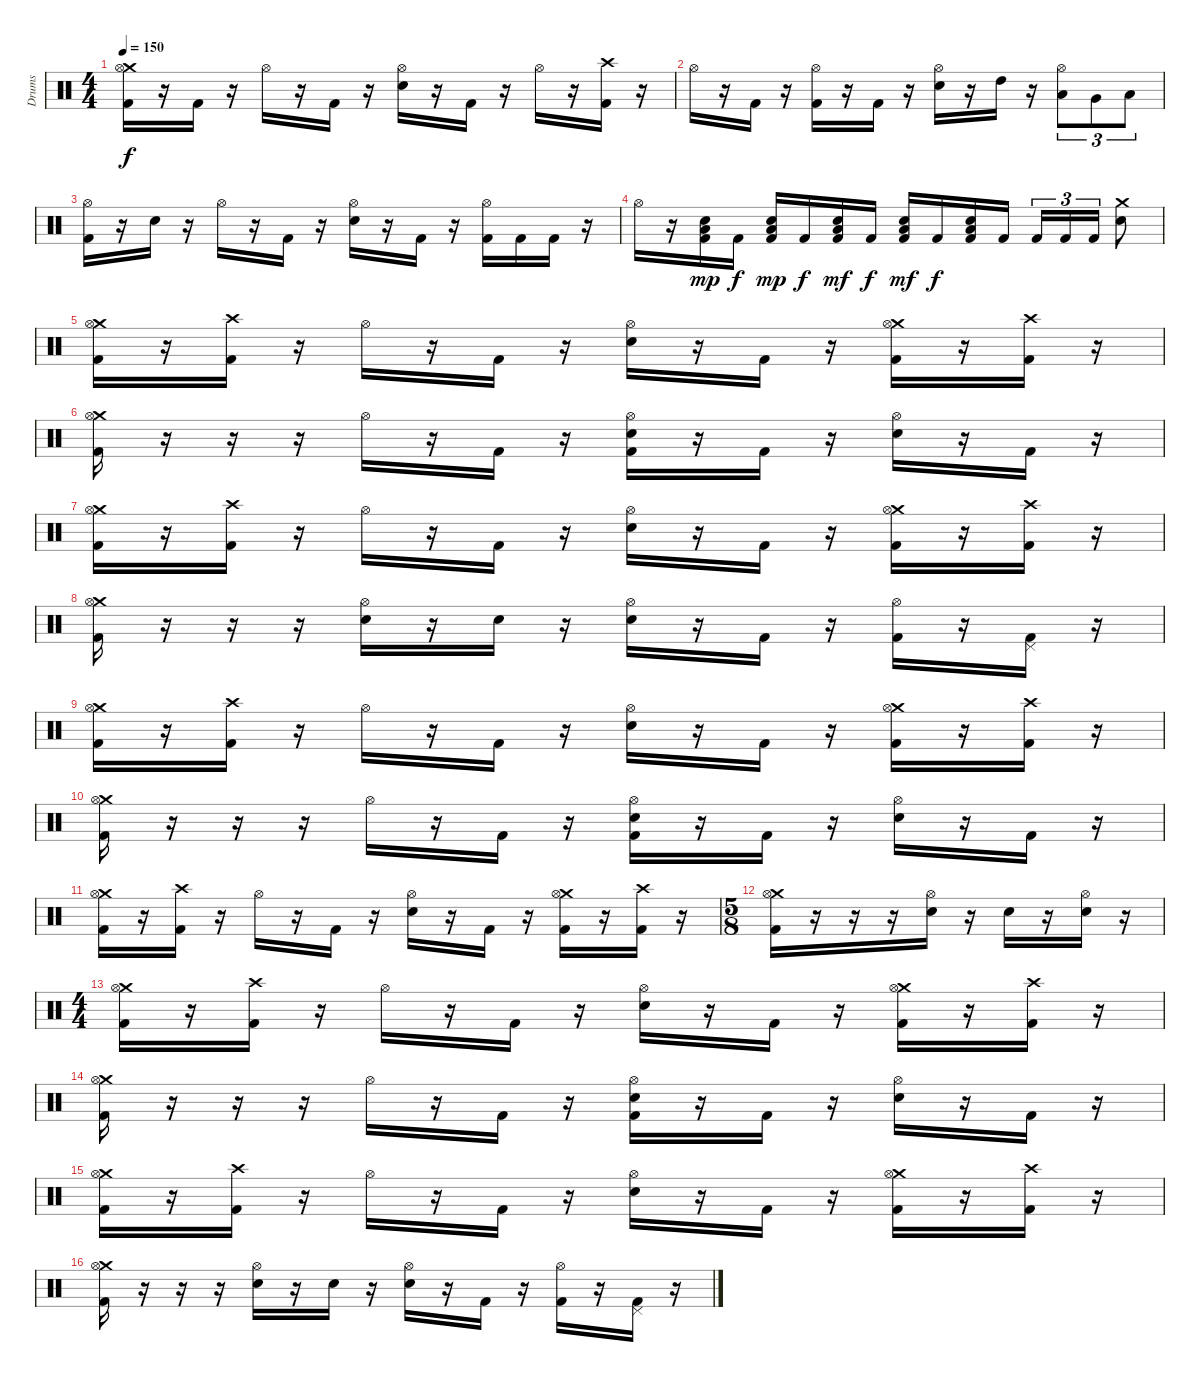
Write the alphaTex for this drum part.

\track ("Drums" "Drums") {instrument percussion}
\staff {score}
\articulation defaults
\ts (4 4)
\tempo 150
\clef neutral
\ks c
("Crash medium (hit)" "Hi-Hat (open)" "Kick (hit) 2").16{dy f} r.16 "Kick (hit) 2".16 r.16 "Hi-Hat (open)".16 r.16 "Kick (hit) 2".16 r.16 ("Hi-Hat (open)" "Electric Snare (hit)").16 r.16 "Kick (hit) 2".16 r.16 "Hi-Hat (open)".16 r.16 ("Crash high (hit)" "Kick (hit) 2").16 r.16 |
"Hi-Hat (open)".16 r.16 "Kick (hit) 2".16 r.16 ("Hi-Hat (open)" "Kick (hit) 2").16 r.16 "Kick (hit) 2".16 r.16 ("Hi-Hat (open)" "Electric Snare (hit)").16 r.16 "High Tom (hit)".16 r.16 ("Hi-Hat (open)" "Low Tom (hit)").8{tu (3 2)} "Very Low Tom (hit)".8{tu (3 2)} "Low Floor Tom (hit)".8{tu (3 2)} |
("Hi-Hat (open)" "Kick (hit) 2").16 r.16 "Electric Snare (hit)".16 r.16 "Hi-Hat (open)".16 r.16 "Kick (hit) 2".16 r.16 ("Hi-Hat (open)" "Electric Snare (hit)").16 r.16 "Kick (hit) 2".16 r.16 ("Hi-Hat (open)" "Kick (hit) 2").16 "Kick (hit) 2".16 "Kick (hit) 2".16 r.16 |
"Hi-Hat (open)".16 r.16 ("Low Tom (hit)" "Kick (hit) 2" "Electric Snare (hit)").16{dy mp} "Kick (hit) 2".16{dy f} ("Low Tom (hit)" "Kick (hit) 2" "Electric Snare (hit)").16{dy mp} "Kick (hit) 2".16{dy f} ("Low Tom (hit)" "Kick (hit) 2" "Electric Snare (hit)").16{dy mf} "Kick (hit) 2".16{dy f} ("Low Tom (hit)" "Electric Snare (hit)" "Kick (hit) 2").16{dy mf} "Kick (hit) 2".16{dy f} ("Low Tom (hit)" "Kick (hit) 2" "Electric Snare (hit)").16 "Kick (hit) 2".16 "Kick (hit) 2".16{tu (3 2)} "Kick (hit) 2".16{tu (3 2)} "Kick (hit) 2".16{tu (3 2)} ("Crash medium (hit)" "Electric Snare (hit)").8 |
("Crash medium (hit)" "Hi-Hat (open)" "Kick (hit) 2").16 r.16 ("Crash high (hit)" "Kick (hit) 2").16 r.16 "Hi-Hat (open)".16 r.16 "Kick (hit) 2".16 r.16 ("Hi-Hat (open)" "Electric Snare (hit)").16 r.16 "Kick (hit) 2".16 r.16 ("Crash medium (hit)" "Hi-Hat (open)" "Kick (hit) 2").16 r.16 ("Crash high (hit)" "Kick (hit) 2").16 r.16 |
("Crash medium (hit)" "Hi-Hat (open)" "Kick (hit) 2").16 r.16 r.16 r.16 "Hi-Hat (open)".16 r.16 "Kick (hit) 2".16 r.16 ("Hi-Hat (open)" "Electric Snare (hit)" "Kick (hit) 2").16 r.16 "Kick (hit) 2".16 r.16 ("Hi-Hat (open)" "Electric Snare (hit)").16 r.16 "Kick (hit) 2".16 r.16 |
("Crash medium (hit)" "Hi-Hat (open)" "Kick (hit) 2").16 r.16 ("Crash high (hit)" "Kick (hit) 2").16 r.16 "Hi-Hat (open)".16 r.16 "Kick (hit) 2".16 r.16 ("Hi-Hat (open)" "Electric Snare (hit)").16 r.16 "Kick (hit) 2".16 r.16 ("Crash medium (hit)" "Hi-Hat (open)" "Kick (hit) 2").16 r.16 ("Crash high (hit)" "Kick (hit) 2").16 r.16 |
("Crash medium (hit)" "Hi-Hat (open)" "Kick (hit) 2").16 r.16 r.16 r.16 ("Hi-Hat (open)" "Electric Snare (hit)").16 r.16 "Electric Snare (hit)".16 r.16 ("Hi-Hat (open)" "Electric Snare (hit)").16 r.16 "Kick (hit) 2".16 r.16 ("Hi-Hat (open)" "Kick (hit) 2").16 r.16 ("Pedal Hi-Hat (hit)" "Kick (hit) 2").16 r.16 |
("Crash medium (hit)" "Hi-Hat (open)" "Kick (hit) 2").16 r.16 ("Crash high (hit)" "Kick (hit) 2").16 r.16 "Hi-Hat (open)".16 r.16 "Kick (hit) 2".16 r.16 ("Hi-Hat (open)" "Electric Snare (hit)").16 r.16 "Kick (hit) 2".16 r.16 ("Crash medium (hit)" "Hi-Hat (open)" "Kick (hit) 2").16 r.16 ("Crash high (hit)" "Kick (hit) 2").16 r.16 |
("Crash medium (hit)" "Hi-Hat (open)" "Kick (hit) 2").16 r.16 r.16 r.16 "Hi-Hat (open)".16 r.16 "Kick (hit) 2".16 r.16 ("Hi-Hat (open)" "Electric Snare (hit)" "Kick (hit) 2").16 r.16 "Kick (hit) 2".16 r.16 ("Hi-Hat (open)" "Electric Snare (hit)").16 r.16 "Kick (hit) 2".16 r.16 |
("Crash medium (hit)" "Hi-Hat (open)" "Kick (hit) 2").16 r.16 ("Crash high (hit)" "Kick (hit) 2").16 r.16 "Hi-Hat (open)".16 r.16 "Kick (hit) 2".16 r.16 ("Hi-Hat (open)" "Electric Snare (hit)").16 r.16 "Kick (hit) 2".16 r.16 ("Crash medium (hit)" "Hi-Hat (open)" "Kick (hit) 2").16 r.16 ("Crash high (hit)" "Kick (hit) 2").16 r.16 |
\ts (5 8)
("Crash medium (hit)" "Hi-Hat (open)" "Kick (hit) 2").16 r.16 r.16 r.16 ("Hi-Hat (open)" "Electric Snare (hit)").16 r.16 "Electric Snare (hit)".16 r.16 ("Hi-Hat (open)" "Electric Snare (hit)").16 r.16 |
\ts (4 4)
("Crash medium (hit)" "Hi-Hat (open)" "Kick (hit) 2").16 r.16 ("Crash high (hit)" "Kick (hit) 2").16 r.16 "Hi-Hat (open)".16 r.16 "Kick (hit) 2".16 r.16 ("Hi-Hat (open)" "Electric Snare (hit)").16 r.16 "Kick (hit) 2".16 r.16 ("Crash medium (hit)" "Hi-Hat (open)" "Kick (hit) 2").16 r.16 ("Crash high (hit)" "Kick (hit) 2").16 r.16 |
("Crash medium (hit)" "Hi-Hat (open)" "Kick (hit) 2").16 r.16 r.16 r.16 "Hi-Hat (open)".16 r.16 "Kick (hit) 2".16 r.16 ("Hi-Hat (open)" "Electric Snare (hit)" "Kick (hit) 2").16 r.16 "Kick (hit) 2".16 r.16 ("Hi-Hat (open)" "Electric Snare (hit)").16 r.16 "Kick (hit) 2".16 r.16 |
("Crash medium (hit)" "Hi-Hat (open)" "Kick (hit) 2").16 r.16 ("Crash high (hit)" "Kick (hit) 2").16 r.16 "Hi-Hat (open)".16 r.16 "Kick (hit) 2".16 r.16 ("Hi-Hat (open)" "Electric Snare (hit)").16 r.16 "Kick (hit) 2".16 r.16 ("Crash medium (hit)" "Hi-Hat (open)" "Kick (hit) 2").16 r.16 ("Crash high (hit)" "Kick (hit) 2").16 r.16 |
("Crash medium (hit)" "Hi-Hat (open)" "Kick (hit) 2").16 r.16 r.16 r.16 ("Hi-Hat (open)" "Electric Snare (hit)").16 r.16 "Electric Snare (hit)".16 r.16 ("Hi-Hat (open)" "Electric Snare (hit)").16 r.16 "Kick (hit) 2".16 r.16 ("Hi-Hat (open)" "Kick (hit) 2").16 r.16 ("Pedal Hi-Hat (hit)" "Kick (hit) 2").16 r.16
